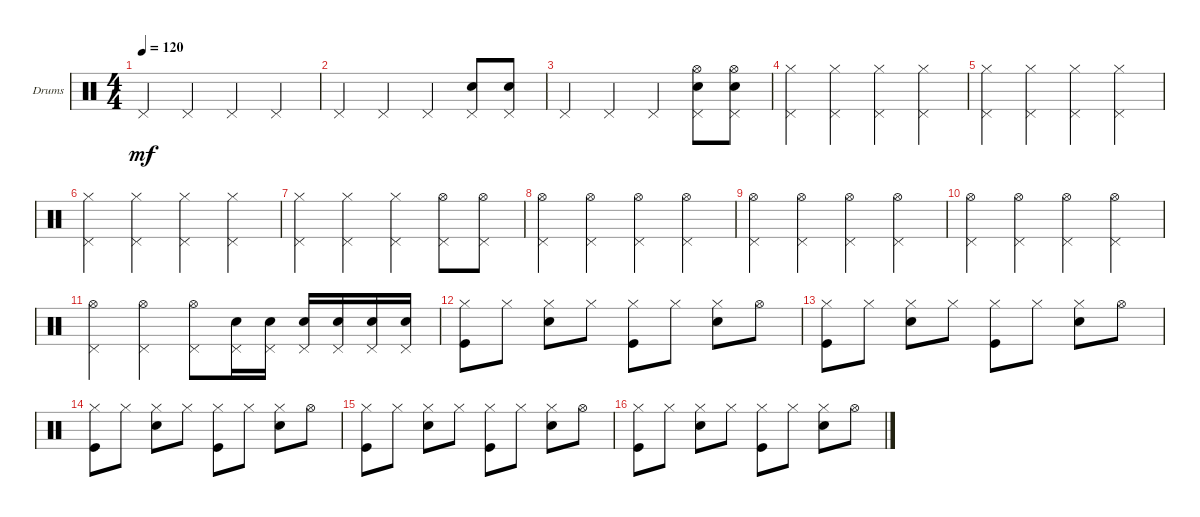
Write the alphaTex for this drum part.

\bracketExtendMode groupsimilarinstruments
\firstSystemTrackNameOrientation horizontal
\otherSystemsTrackNameOrientation horizontal
\track ("Drumkit" "Drums") {instrument percussion}
\staff {score}
\articulation defaults
\ts (4 4)
\tempo 120
\clef neutral
\ks c "Pedal Hi-Hat (hit)".4{dy mf} "Pedal Hi-Hat (hit)".4 "Pedal Hi-Hat (hit)".4 "Pedal Hi-Hat (hit)".4
|
"Pedal Hi-Hat (hit)".4 "Pedal Hi-Hat (hit)".4 "Pedal Hi-Hat (hit)".4 ("Pedal Hi-Hat (hit)" "Snare (hit) 2").8 ("Pedal Hi-Hat (hit)" "Snare (hit) 2").8 |
"Pedal Hi-Hat (hit)".4 "Pedal Hi-Hat (hit)".4 "Pedal Hi-Hat (hit)".4 ("Pedal Hi-Hat (hit)" "Snare (hit) 2" "Hi-Hat (open)").8 ("Snare (hit) 2" "Hi-Hat (open)" "Pedal Hi-Hat (hit)").8 |
("Pedal Hi-Hat (hit)" "Hi-Hat (closed)").4 ("Pedal Hi-Hat (hit)" "Hi-Hat (closed)").4 ("Pedal Hi-Hat (hit)" "Hi-Hat (closed)").4 ("Pedal Hi-Hat (hit)" "Hi-Hat (closed)").4 |
("Pedal Hi-Hat (hit)" "Hi-Hat (closed)").4 ("Pedal Hi-Hat (hit)" "Hi-Hat (closed)").4 ("Pedal Hi-Hat (hit)" "Hi-Hat (closed)").4 ("Pedal Hi-Hat (hit)" "Hi-Hat (closed)").4 |
("Pedal Hi-Hat (hit)" "Hi-Hat (closed)").4 ("Pedal Hi-Hat (hit)" "Hi-Hat (closed)").4 ("Pedal Hi-Hat (hit)" "Hi-Hat (closed)").4 ("Pedal Hi-Hat (hit)" "Hi-Hat (closed)").4 |
("Pedal Hi-Hat (hit)" "Hi-Hat (closed)").4 ("Pedal Hi-Hat (hit)" "Hi-Hat (closed)").4 ("Pedal Hi-Hat (hit)" "Hi-Hat (closed)").4 ("Pedal Hi-Hat (hit)" "Hi-Hat (open)").8 ("Pedal Hi-Hat (hit)" "Hi-Hat (open)").8 |
("Pedal Hi-Hat (hit)" "Hi-Hat (open)").4 ("Pedal Hi-Hat (hit)" "Hi-Hat (open)").4 ("Pedal Hi-Hat (hit)" "Hi-Hat (open)").4 ("Pedal Hi-Hat (hit)" "Hi-Hat (open)").4 |
("Pedal Hi-Hat (hit)" "Hi-Hat (open)").4 ("Pedal Hi-Hat (hit)" "Hi-Hat (open)").4 ("Pedal Hi-Hat (hit)" "Hi-Hat (open)").4 ("Pedal Hi-Hat (hit)" "Hi-Hat (open)").4 |
("Pedal Hi-Hat (hit)" "Hi-Hat (open)").4 ("Pedal Hi-Hat (hit)" "Hi-Hat (open)").4 ("Pedal Hi-Hat (hit)" "Hi-Hat (open)").4 ("Pedal Hi-Hat (hit)" "Hi-Hat (open)").4 |
("Pedal Hi-Hat (hit)" "Hi-Hat (open)").4 ("Pedal Hi-Hat (hit)" "Hi-Hat (open)").4 ("Pedal Hi-Hat (hit)" "Hi-Hat (open)").8 ("Snare (hit) 2" "Pedal Hi-Hat (hit)").16 ("Snare (hit) 2" "Pedal Hi-Hat (hit)").16 ("Snare (hit) 2" "Pedal Hi-Hat (hit)").16 ("Snare (hit) 2" "Pedal Hi-Hat (hit)").16 ("Snare (hit) 2" "Pedal Hi-Hat (hit)").16 ("Snare (hit) 2" "Pedal Hi-Hat (hit)").16 |
("Kick (hit)" "Hi-Hat (closed)").8 "Hi-Hat (closed)".8 ("Snare (hit) 2" "Hi-Hat (closed)").8 "Hi-Hat (closed)".8 ("Kick (hit)" "Hi-Hat (closed)").8 "Hi-Hat (closed)".8 ("Snare (hit) 2" "Hi-Hat (closed)").8 "Hi-Hat (open)".8 |
("Kick (hit)" "Hi-Hat (closed)").8 "Hi-Hat (closed)".8 ("Snare (hit) 2" "Hi-Hat (closed)").8 "Hi-Hat (closed)".8 ("Kick (hit)" "Hi-Hat (closed)").8 "Hi-Hat (closed)".8 ("Snare (hit) 2" "Hi-Hat (closed)").8 "Hi-Hat (open)".8 |
("Kick (hit)" "Hi-Hat (closed)").8 "Hi-Hat (closed)".8 ("Snare (hit) 2" "Hi-Hat (closed)").8 "Hi-Hat (closed)".8 ("Kick (hit)" "Hi-Hat (closed)").8 "Hi-Hat (closed)".8 ("Snare (hit) 2" "Hi-Hat (closed)").8 "Hi-Hat (open)".8 |
("Kick (hit)" "Hi-Hat (closed)").8 "Hi-Hat (closed)".8 ("Snare (hit) 2" "Hi-Hat (closed)").8 "Hi-Hat (closed)".8 ("Kick (hit)" "Hi-Hat (closed)").8 "Hi-Hat (closed)".8 ("Snare (hit) 2" "Hi-Hat (closed)").8 "Hi-Hat (open)".8 |
("Kick (hit)" "Hi-Hat (closed)").8 "Hi-Hat (closed)".8 ("Snare (hit) 2" "Hi-Hat (closed)").8 "Hi-Hat (closed)".8 ("Kick (hit)" "Hi-Hat (closed)").8 "Hi-Hat (closed)".8 ("Snare (hit) 2" "Hi-Hat (closed)").8 "Hi-Hat (open)".8
